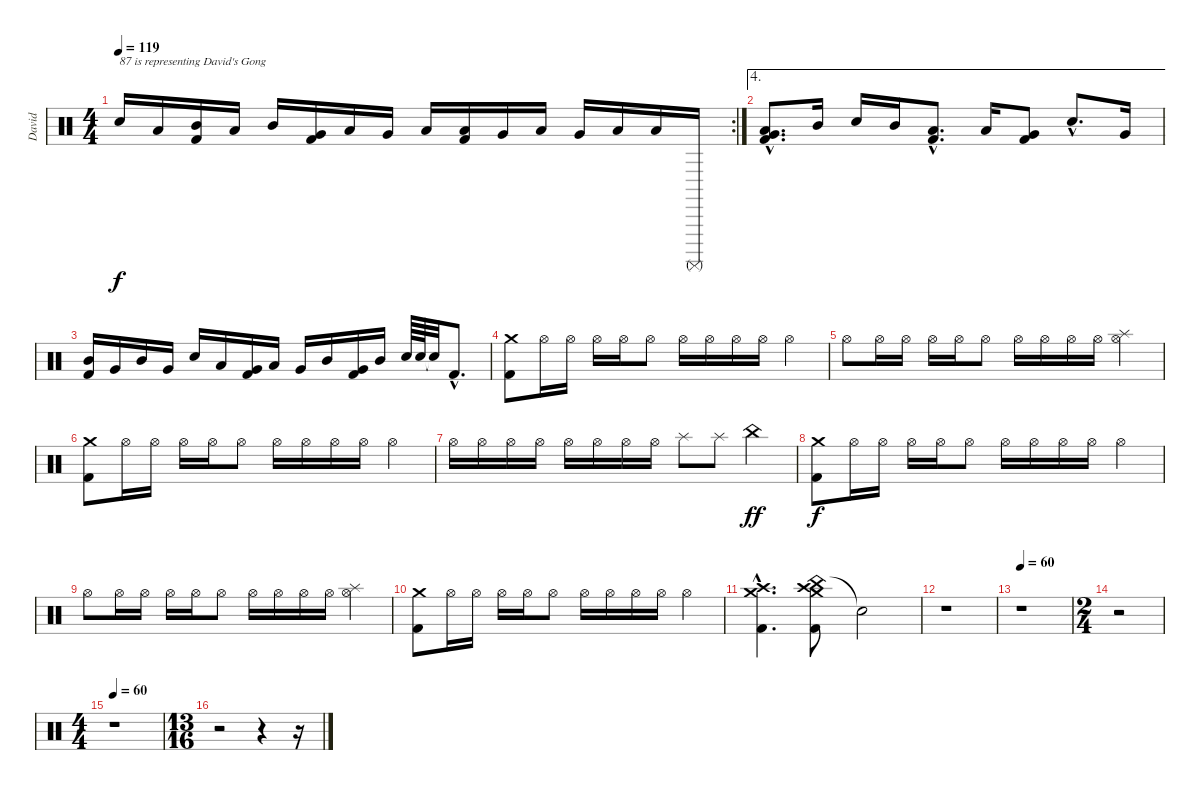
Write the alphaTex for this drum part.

\track ("David" "David") {instrument percussion}
\staff {score}
\articulation defaults
\rc 2
\ts (4 4)
\tempo 119
\clef neutral
\ks c "Snare (hit) 2".16{txt "87 is representing David's Gong" dy f} "Low Tom (hit)".16
("Mid Tom (hit)" "Kick (hit) 2").16 "Low Tom (hit)".16 "Mid Tom (hit)".16 ("Very Low Tom (hit)" "Kick (hit) 2").16 "Low Tom (hit)".16 "Very Low Tom (hit)".16 "Low Tom (hit)".16 ("Low Floor Tom (hit)" "Kick (hit) 2").16 "Very Low Tom (hit)".16 "Low Floor Tom (hit)".16 "Very Low Tom (hit)".16 "Low Floor Tom (hit)".16 "Low Floor Tom (hit)".16 "Surdo (mute)".16 |
\ae 4
("Low Tom (hit)"{hac} "Very Low Tom (hit)"{hac} "Kick (hit) 2"{hac}).8{d} "Mid Tom (hit)".16 "Snare (hit) 2".16 "Mid Tom (hit)".16 ("Low Tom (hit)"{hac} "Kick (hit) 2"{hac}).8{d} "Low Tom (hit)".16 ("Very Low Tom (hit)" "Kick (hit) 2").8 "Snare (hit) 2"{hac}.8{d} "Very Low Tom (hit)".16 |
("Mid Tom (hit)" "Kick (hit) 2").16 "Very Low Tom (hit)".16 "Mid Tom (hit)".16 "Very Low Tom (hit)".16 "Snare (hit) 2".16 "Low Tom (hit)".16 ("Very Low Tom (hit)" "Kick (hit) 2").16 "Low Tom (hit)".16 "Very Low Tom (hit)".16 "Mid Tom (hit)".16 ("Very Low Tom (hit)" "Kick (hit) 2").16 "Mid Tom (hit)".16 "Snare (hit) 2".64 "Snare (hit) 2".64 "Snare (hit)"{t}.32 "Kick (hit) 2"{hac}.8{d} |
("Crash medium (hit)" "Kick (hit) 2").8 "Hi-Hat (open)".16 "Hi-Hat (open)".16 "Hi-Hat (open)".16 "Hi-Hat (open)".16 "Hi-Hat (open)".8 "Hi-Hat (open)".16 "Hi-Hat (open)".16 "Hi-Hat (open)".16 "Hi-Hat (open)".16 "Hi-Hat (open)".4 |
"Hi-Hat (open)".8 "Hi-Hat (open)".16 "Hi-Hat (open)".16 "Hi-Hat (open)".16 "Hi-Hat (open)".16 "Hi-Hat (open)".8 "Hi-Hat (open)".16 "Hi-Hat (open)".16 "Hi-Hat (open)".16 "Hi-Hat (open)".16 ("Splash (hit)" "Hi-Hat (open)").4 |
("Crash medium (hit)" "Kick (hit) 2").8 "Hi-Hat (open)".16 "Hi-Hat (open)".16 "Hi-Hat (open)".16 "Hi-Hat (open)".16 "Hi-Hat (open)".8 "Hi-Hat (open)".16 "Hi-Hat (open)".16 "Hi-Hat (open)".16 "Hi-Hat (open)".16 "Hi-Hat (open)".4 |
"Hi-Hat (open)".16 "Hi-Hat (open)".16 "Hi-Hat (open)".16 "Hi-Hat (open)".16 "Hi-Hat (open)".16 "Hi-Hat (open)".16 "Hi-Hat (open)".16 "Hi-Hat (open)".16 "Splash (hit)".8 "Splash (hit)".8 "China (hit)".4{dy ff} |
("Crash medium (hit)" "Kick (hit) 2").8{dy f} "Hi-Hat (open)".16 "Hi-Hat (open)".16 "Hi-Hat (open)".16 "Hi-Hat (open)".16 "Hi-Hat (open)".8 "Hi-Hat (open)".16 "Hi-Hat (open)".16 "Hi-Hat (open)".16 "Hi-Hat (open)".16 "Hi-Hat (open)".4 |
"Hi-Hat (open)".8 "Hi-Hat (open)".16 "Hi-Hat (open)".16 "Hi-Hat (open)".16 "Hi-Hat (open)".16 "Hi-Hat (open)".8 "Hi-Hat (open)".16 "Hi-Hat (open)".16 "Hi-Hat (open)".16 "Hi-Hat (open)".16 ("Splash (hit)" "Hi-Hat (open)").4 |
("Crash medium (hit)" "Kick (hit) 2").8 "Hi-Hat (open)".16 "Hi-Hat (open)".16 "Hi-Hat (open)".16 "Hi-Hat (open)".16 "Hi-Hat (open)".8 "Hi-Hat (open)".16 "Hi-Hat (open)".16 "Hi-Hat (open)".16 "Hi-Hat (open)".16 "Hi-Hat (open)".4 |
("Crash medium (hit)"{hac} "Crash high (hit)"{hac} "Kick (hit) 2"{hac}).4{d} ("China (hit)" "Crash high (hit)" "Crash medium (hit)" "Kick (hit) 2").8 "Snare (hit)"{t}.2 |
r.1 |
\tempo 60
r.1 |
\ts (2 4)
r.2 |
\ts (4 4)
\tempo 60
r.1 |
\ts (13 16)
r.2 r.4 r.16
